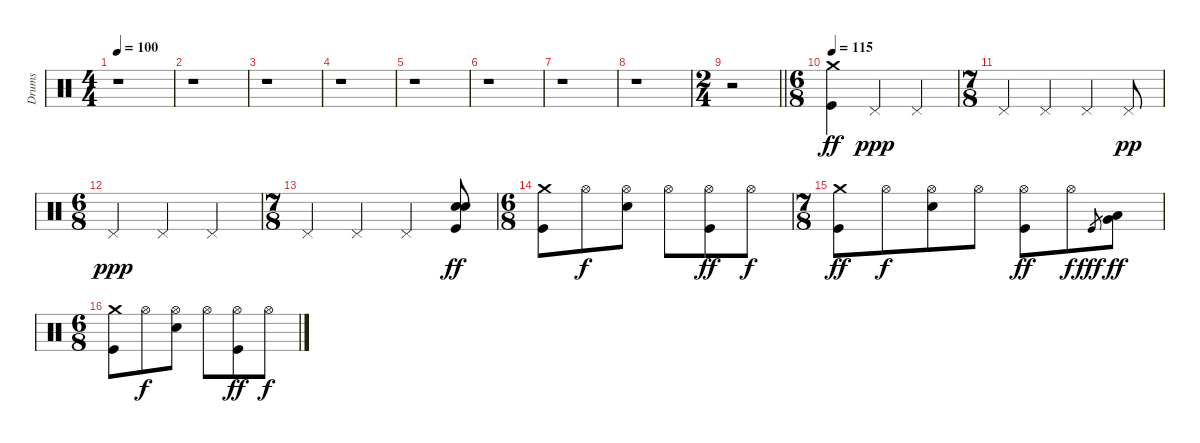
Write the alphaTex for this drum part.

\track ("Drums" "Drums") {instrument percussion}
\staff {score}
\articulation defaults
\ts (4 4)
\tempo 100
\clef neutral
\ks c
r.1{dy ff} |
r.1 |
r.1 |
r.1 |
r.1 |
r.1 |
r.1 |
r.1 |
\ts (2 4)
\barLineRight lightlight
r.2 |
\ts (6 8)
\tempo 115
("Crash medium (hit)" "Kick (hit)").4 "Pedal Hi-Hat (hit)".4{dy ppp} "Pedal Hi-Hat (hit)".4 |
\ts (7 8)
"Pedal Hi-Hat (hit)".4 "Pedal Hi-Hat (hit)".4 "Pedal Hi-Hat (hit)".4 "Pedal Hi-Hat (hit)".8{dy pp} |
\ts (6 8)
"Pedal Hi-Hat (hit)".4{dy ppp} "Pedal Hi-Hat (hit)".4 "Pedal Hi-Hat (hit)".4 |
\ts (7 8)
"Pedal Hi-Hat (hit)".4 "Pedal Hi-Hat (hit)".4 "Pedal Hi-Hat (hit)".4 ("Snare (hit) 2" "Snare (hit) 2" "Kick (hit)").8{dy ff} |
\ts (6 8)
("Crash medium (hit)" "Kick (hit)").8 "Hi-Hat (open)".8{dy f} ("Hi-Hat (open)" "Snare (hit) 2").8 "Hi-Hat (open)".8 ("Hi-Hat (open)" "Kick (hit)").8{dy ff} "Hi-Hat (open)".8{dy f} |
\ts (7 8)
("Crash medium (hit)" "Kick (hit)").8{dy ff} "Hi-Hat (open)".8{dy f} ("Hi-Hat (open)" "Snare (hit) 2").8 "Hi-Hat (open)".8 ("Hi-Hat (open)" "Kick (hit)").8{dy ff} "Hi-Hat (open)".8{dy f} "Kick (hit)".8{gr dy fff} ("Very Low Tom (hit)" "Low Floor Tom (hit)").8{dy ff} |
\ts (6 8)
("Crash medium (hit)" "Kick (hit)").8 "Hi-Hat (open)".8{dy f} ("Hi-Hat (open)" "Snare (hit) 2").8 "Hi-Hat (open)".8 ("Hi-Hat (open)" "Kick (hit)").8{dy ff} "Hi-Hat (open)".8{dy f}
